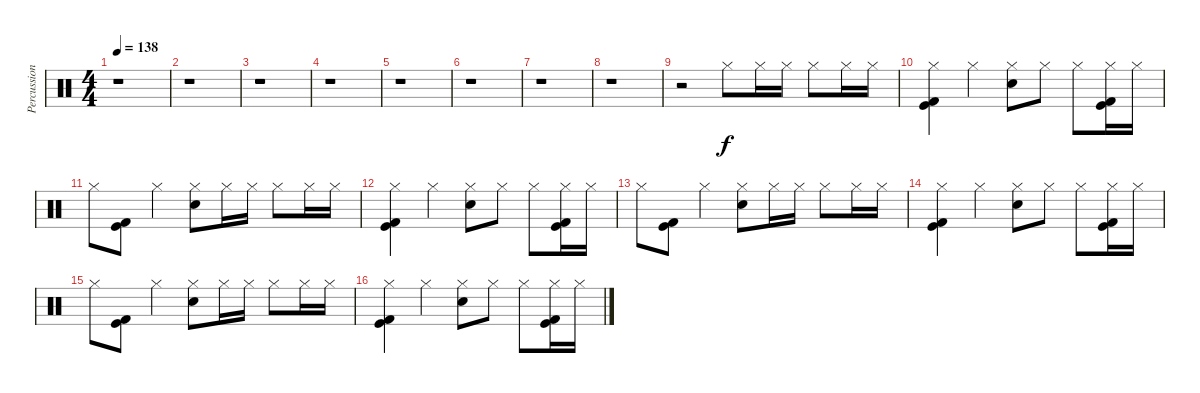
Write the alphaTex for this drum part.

\track ("Percussion" "Percussion") {instrument percussion}
\staff {score}
\articulation defaults
\ts (4 4)
\tempo 138
\clef neutral
\ks c
r.1{dy f} |
r.1 |
r.1 |
r.1 |
r.1 |
r.1 |
r.1 |
r.1 |
r.2 "Hi-Hat (closed)".8 "Hi-Hat (closed)".16 "Hi-Hat (closed)".16 "Hi-Hat (closed)".8 "Hi-Hat (closed)".16 "Hi-Hat (closed)".16 |
("Hi-Hat (closed)" "Kick (hit)" "Kick (hit) 2").4 "Hi-Hat (closed)".4 ("Hi-Hat (closed)" "Electric Snare (hit)").8 "Hi-Hat (closed)".8 "Hi-Hat (closed)".8 ("Hi-Hat (closed)" "Kick (hit)" "Kick (hit) 2").16 "Hi-Hat (closed)".16 |
"Hi-Hat (closed)".8 ("Kick (hit)" "Kick (hit) 2").8 "Hi-Hat (closed)".4 ("Hi-Hat (closed)" "Electric Snare (hit)").8 "Hi-Hat (closed)".16 "Hi-Hat (closed)".16 "Hi-Hat (closed)".8 "Hi-Hat (closed)".16 "Hi-Hat (closed)".16 |
("Hi-Hat (closed)" "Kick (hit)" "Kick (hit) 2").4 "Hi-Hat (closed)".4 ("Hi-Hat (closed)" "Electric Snare (hit)").8 "Hi-Hat (closed)".8 "Hi-Hat (closed)".8 ("Hi-Hat (closed)" "Kick (hit)" "Kick (hit) 2").16 "Hi-Hat (closed)".16 |
"Hi-Hat (closed)".8 ("Kick (hit)" "Kick (hit) 2").8 "Hi-Hat (closed)".4 ("Hi-Hat (closed)" "Electric Snare (hit)").8 "Hi-Hat (closed)".16 "Hi-Hat (closed)".16 "Hi-Hat (closed)".8 "Hi-Hat (closed)".16 "Hi-Hat (closed)".16 |
("Hi-Hat (closed)" "Kick (hit)" "Kick (hit) 2").4 "Hi-Hat (closed)".4 ("Hi-Hat (closed)" "Electric Snare (hit)").8 "Hi-Hat (closed)".8 "Hi-Hat (closed)".8 ("Hi-Hat (closed)" "Kick (hit)" "Kick (hit) 2").16 "Hi-Hat (closed)".16 |
"Hi-Hat (closed)".8 ("Kick (hit)" "Kick (hit) 2").8 "Hi-Hat (closed)".4 ("Hi-Hat (closed)" "Electric Snare (hit)").8 "Hi-Hat (closed)".16 "Hi-Hat (closed)".16 "Hi-Hat (closed)".8 "Hi-Hat (closed)".16 "Hi-Hat (closed)".16 |
("Hi-Hat (closed)" "Kick (hit)" "Kick (hit) 2").4 "Hi-Hat (closed)".4 ("Hi-Hat (closed)" "Electric Snare (hit)").8 "Hi-Hat (closed)".8 "Hi-Hat (closed)".8 ("Hi-Hat (closed)" "Kick (hit)" "Kick (hit) 2").16 "Hi-Hat (closed)".16
